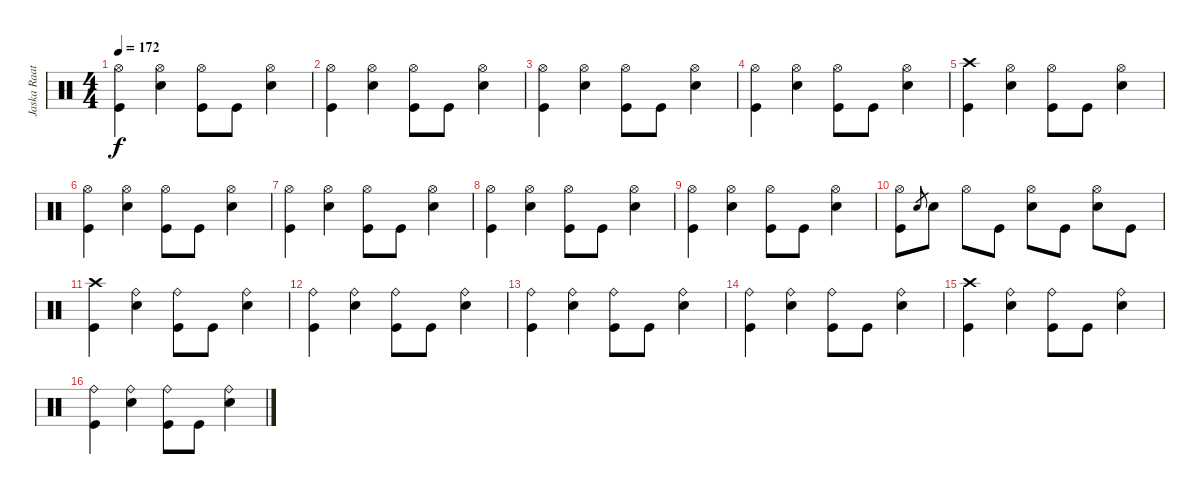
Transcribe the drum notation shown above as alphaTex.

\track ("Jaska Raatikainen" "Jaska Raat") {instrument percussion}
\staff {score}
\articulation defaults
\ts (4 4)
\tempo 172
\clef neutral
\ks c
("Hi-Hat (open)" "Kick (hit)").4{dy f} ("Hi-Hat (open)" "Snare (hit) 2").4 ("Hi-Hat (open)" "Kick (hit)").8 "Kick (hit)".8 ("Hi-Hat (open)" "Snare (hit) 2").4 |
("Hi-Hat (open)" "Kick (hit)").4 ("Hi-Hat (open)" "Snare (hit) 2").4 ("Hi-Hat (open)" "Kick (hit)").8 "Kick (hit)".8 ("Hi-Hat (open)" "Snare (hit) 2").4 |
("Hi-Hat (open)" "Kick (hit)").4 ("Hi-Hat (open)" "Snare (hit) 2").4 ("Hi-Hat (open)" "Kick (hit)").8 "Kick (hit)".8 ("Hi-Hat (open)" "Snare (hit) 2").4 |
("Hi-Hat (open)" "Kick (hit)").4 ("Hi-Hat (open)" "Snare (hit) 2").4 ("Hi-Hat (open)" "Kick (hit)").8 "Kick (hit)".8 ("Hi-Hat (open)" "Snare (hit) 2").4 |
("Crash high (hit)" "Kick (hit)").4 ("Hi-Hat (open)" "Snare (hit) 2").4 ("Hi-Hat (open)" "Kick (hit)").8 "Kick (hit)".8 ("Hi-Hat (open)" "Snare (hit) 2").4 |
("Hi-Hat (open)" "Kick (hit)").4 ("Hi-Hat (open)" "Snare (hit) 2").4 ("Hi-Hat (open)" "Kick (hit)").8 "Kick (hit)".8 ("Hi-Hat (open)" "Snare (hit) 2").4 |
("Hi-Hat (open)" "Kick (hit)").4 ("Hi-Hat (open)" "Snare (hit) 2").4 ("Hi-Hat (open)" "Kick (hit)").8 "Kick (hit)".8 ("Hi-Hat (open)" "Snare (hit) 2").4 |
("Hi-Hat (open)" "Kick (hit)").4 ("Hi-Hat (open)" "Snare (hit) 2").4 ("Hi-Hat (open)" "Kick (hit)").8 "Kick (hit)".8 ("Hi-Hat (open)" "Snare (hit) 2").4 |
("Hi-Hat (open)" "Kick (hit)").4 ("Hi-Hat (open)" "Snare (hit) 2").4 ("Hi-Hat (open)" "Kick (hit)").8 "Kick (hit)".8 ("Hi-Hat (open)" "Snare (hit) 2").4 |
("Hi-Hat (open)" "Kick (hit)").8 "Snare (hit) 2".8{gr} "Snare (hit) 2".8 "Hi-Hat (open)".8 "Kick (hit)".8 ("Hi-Hat (open)" "Snare (hit) 2").8 "Kick (hit)".8 ("Hi-Hat (open)" "Snare (hit) 2").8 "Kick (hit)".8 |
("Crash high (hit)" "Kick (hit)").4 ("Ride (bell)" "Snare (hit) 2").4 ("Ride (bell)" "Kick (hit)").8 "Kick (hit)".8 ("Ride (bell)" "Snare (hit) 2").4 |
("Ride (bell)" "Kick (hit)").4 ("Ride (bell)" "Snare (hit) 2").4 ("Ride (bell)" "Kick (hit)").8 "Kick (hit)".8 ("Ride (bell)" "Snare (hit) 2").4 |
("Ride (bell)" "Kick (hit)").4 ("Ride (bell)" "Snare (hit) 2").4 ("Ride (bell)" "Kick (hit)").8 "Kick (hit)".8 ("Ride (bell)" "Snare (hit) 2").4 |
("Ride (bell)" "Kick (hit)").4 ("Ride (bell)" "Snare (hit) 2").4 ("Ride (bell)" "Kick (hit)").8 "Kick (hit)".8 ("Ride (bell)" "Snare (hit) 2").4 |
("Crash high (hit)" "Kick (hit)").4 ("Ride (bell)" "Snare (hit) 2").4 ("Ride (bell)" "Kick (hit)").8 "Kick (hit)".8 ("Ride (bell)" "Snare (hit) 2").4 |
("Ride (bell)" "Kick (hit)").4 ("Ride (bell)" "Snare (hit) 2").4 ("Ride (bell)" "Kick (hit)").8 "Kick (hit)".8 ("Ride (bell)" "Snare (hit) 2").4
